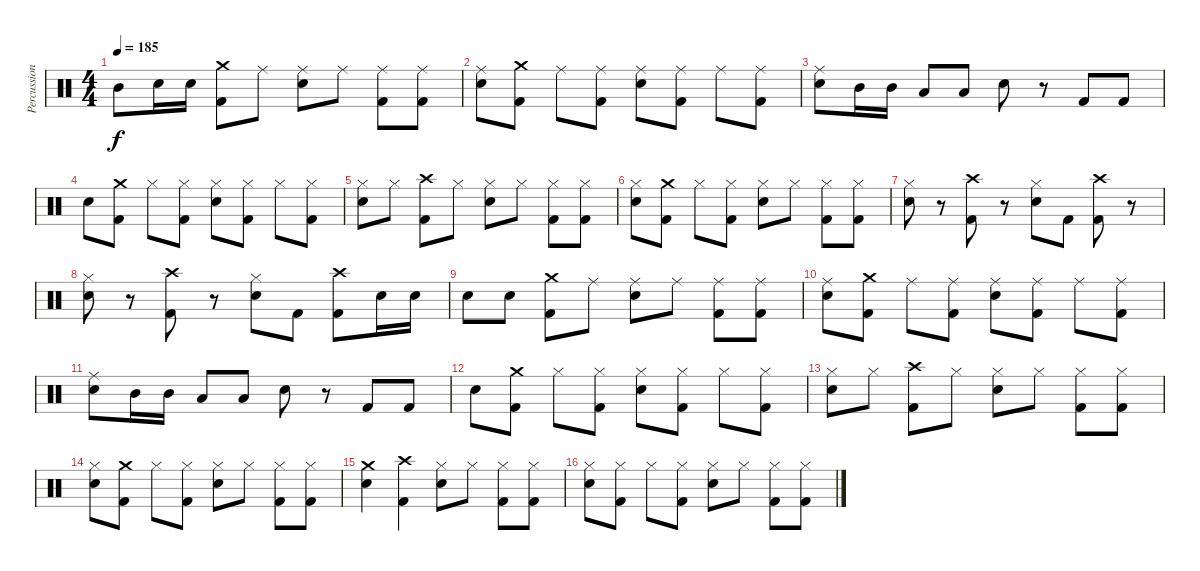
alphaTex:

\track ("Percussion" "Percussion") {instrument percussion}
\staff {score}
\articulation defaults
\ts (4 4)
\tempo 185
\clef neutral
\ks c "Mid Tom (hit)".8{dy f} "Electric Snare (hit)".16 "Electric Snare (hit)".16
("Crash medium (hit)" "Kick (hit) 2").8 "Ride (middle)".8 ("Ride (middle)" "Electric Snare (hit)").8 "Ride (middle)".8 ("Ride (middle)" "Kick (hit) 2").8 ("Ride (middle)" "Kick (hit) 2").8 |
("Ride (middle)" "Electric Snare (hit)").8 ("Crash medium (hit)" "Kick (hit) 2").8 "Ride (middle)".8 ("Ride (middle)" "Kick (hit) 2").8 ("Ride (middle)" "Electric Snare (hit)").8 ("Ride (middle)" "Kick (hit) 2").8 "Ride (middle)".8 ("Ride (middle)" "Kick (hit) 2").8 |
("Ride (middle)" "Electric Snare (hit)").8 "Mid Tom (hit)".16 "Mid Tom (hit)".16 "Low Tom (hit)".8 "Low Tom (hit)".8 "Electric Snare (hit)".8 r.8 "Kick (hit) 2".8 "Kick (hit) 2".8 |
"Electric Snare (hit)".8 ("Crash medium (hit)" "Kick (hit) 2").8 "Hi-Hat (closed)".8 ("Hi-Hat (closed)" "Kick (hit) 2").8 ("Hi-Hat (closed)" "Electric Snare (hit)").8 ("Hi-Hat (closed)" "Kick (hit) 2").8 "Hi-Hat (closed)".8 ("Hi-Hat (closed)" "Kick (hit) 2").8 |
("Hi-Hat (closed)" "Electric Snare (hit)").8 "Hi-Hat (closed)".8 ("Crash high (hit)" "Kick (hit) 2").8 "Hi-Hat (closed)".8 ("Hi-Hat (closed)" "Electric Snare (hit)").8 "Hi-Hat (closed)".8 ("Hi-Hat (closed)" "Kick (hit) 2").8 ("Hi-Hat (closed)" "Kick (hit) 2").8 |
("Hi-Hat (closed)" "Electric Snare (hit)").8 ("Crash medium (hit)" "Kick (hit) 2").8 "Hi-Hat (closed)".8 ("Hi-Hat (closed)" "Kick (hit) 2").8 ("Hi-Hat (closed)" "Electric Snare (hit)").8 "Hi-Hat (closed)".8 ("Hi-Hat (closed)" "Kick (hit) 2").8 ("Hi-Hat (closed)" "Kick (hit) 2").8 |
("Hi-Hat (closed)" "Electric Snare (hit)").8 r.8 ("Crash high (hit)" "Kick (hit) 2").8 r.8 ("Hi-Hat (closed)" "Electric Snare (hit)").8 "Kick (hit) 2".8 ("Crash high (hit)" "Kick (hit) 2").8 r.8 |
("Hi-Hat (closed)" "Electric Snare (hit)").8 r.8 ("Crash high (hit)" "Kick (hit) 2").8 r.8 ("Hi-Hat (closed)" "Electric Snare (hit)").8 "Kick (hit) 2".8 ("Crash high (hit)" "Kick (hit) 2").8 "Electric Snare (hit)".16 "Electric Snare (hit)".16 |
"Electric Snare (hit)".8 "Electric Snare (hit)".8 ("Crash medium (hit)" "Kick (hit) 2").8 "Ride (middle)".8 ("Ride (middle)" "Electric Snare (hit)").8 "Ride (middle)".8 ("Ride (middle)" "Kick (hit) 2").8 ("Ride (middle)" "Kick (hit) 2").8 |
("Ride (middle)" "Electric Snare (hit)").8 ("Crash medium (hit)" "Kick (hit) 2").8 "Ride (middle)".8 ("Ride (middle)" "Kick (hit) 2").8 ("Ride (middle)" "Electric Snare (hit)").8 ("Ride (middle)" "Kick (hit) 2").8 "Ride (middle)".8 ("Ride (middle)" "Kick (hit) 2").8 |
("Ride (middle)" "Electric Snare (hit)").8 "Mid Tom (hit)".16 "Mid Tom (hit)".16 "Low Tom (hit)".8 "Low Tom (hit)".8 "Electric Snare (hit)".8 r.8 "Kick (hit) 2".8 "Kick (hit) 2".8 |
"Electric Snare (hit)".8 ("Crash medium (hit)" "Kick (hit) 2").8 "Hi-Hat (closed)".8 ("Hi-Hat (closed)" "Kick (hit) 2").8 ("Hi-Hat (closed)" "Electric Snare (hit)").8 ("Hi-Hat (closed)" "Kick (hit) 2").8 "Hi-Hat (closed)".8 ("Hi-Hat (closed)" "Kick (hit) 2").8 |
("Hi-Hat (closed)" "Electric Snare (hit)").8 "Hi-Hat (closed)".8 ("Crash high (hit)" "Kick (hit) 2").8 "Hi-Hat (closed)".8 ("Hi-Hat (closed)" "Electric Snare (hit)").8 "Hi-Hat (closed)".8 ("Hi-Hat (closed)" "Kick (hit) 2").8 ("Hi-Hat (closed)" "Kick (hit) 2").8 |
("Hi-Hat (closed)" "Electric Snare (hit)").8 ("Crash medium (hit)" "Kick (hit) 2").8 "Hi-Hat (closed)".8 ("Hi-Hat (closed)" "Kick (hit) 2").8 ("Hi-Hat (closed)" "Electric Snare (hit)").8 "Hi-Hat (closed)".8 ("Hi-Hat (closed)" "Kick (hit) 2").8 ("Hi-Hat (closed)" "Kick (hit) 2").8 |
("Crash medium (hit)" "Electric Snare (hit)").4 ("Crash high (hit)" "Kick (hit) 2").4 ("Hi-Hat (closed)" "Electric Snare (hit)").8 "Hi-Hat (closed)".8 ("Hi-Hat (closed)" "Kick (hit) 2").8 ("Hi-Hat (closed)" "Kick (hit) 2").8 |
("Hi-Hat (closed)" "Electric Snare (hit)").8 ("Hi-Hat (closed)" "Kick (hit) 2").8 "Hi-Hat (closed)".8 ("Hi-Hat (closed)" "Kick (hit) 2").8 ("Hi-Hat (closed)" "Electric Snare (hit)").8 "Hi-Hat (closed)".8 ("Hi-Hat (closed)" "Kick (hit) 2").8 ("Hi-Hat (closed)" "Kick (hit) 2").8
